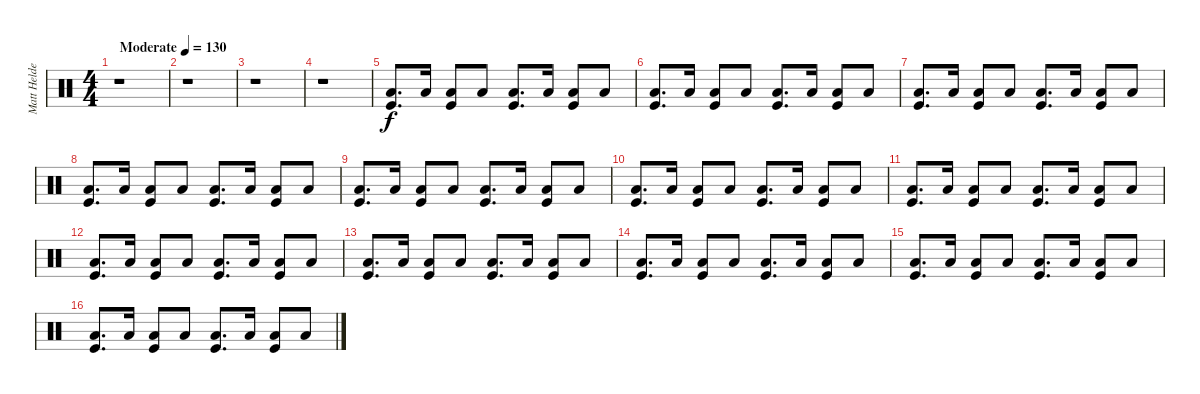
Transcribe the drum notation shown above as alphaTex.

\track ("Matt Helders (Drums)" "Matt Helde") {instrument percussion}
\staff {score}
\articulation defaults
\ts (4 4)
\tempo (130 "Moderate")
\clef neutral
\ks c
r.1{dy f} |
r.1 |
r.1 |
r.1 |
("Low Floor Tom (hit)" "Kick (hit)").8{d} "Low Floor Tom (hit)".16 ("Low Floor Tom (hit)" "Kick (hit)").8 "Low Floor Tom (hit)".8 ("Low Floor Tom (hit)" "Kick (hit)").8{d} "Low Floor Tom (hit)".16 ("Low Floor Tom (hit)" "Kick (hit)").8 "Low Floor Tom (hit)".8 |
("Low Floor Tom (hit)" "Kick (hit)").8{d} "Low Floor Tom (hit)".16 ("Low Floor Tom (hit)" "Kick (hit)").8 "Low Floor Tom (hit)".8 ("Low Floor Tom (hit)" "Kick (hit)").8{d} "Low Floor Tom (hit)".16 ("Low Floor Tom (hit)" "Kick (hit)").8 "Low Floor Tom (hit)".8 |
("Low Floor Tom (hit)" "Kick (hit)").8{d} "Low Floor Tom (hit)".16 ("Low Floor Tom (hit)" "Kick (hit)").8 "Low Floor Tom (hit)".8 ("Low Floor Tom (hit)" "Kick (hit)").8{d} "Low Floor Tom (hit)".16 ("Low Floor Tom (hit)" "Kick (hit)").8 "Low Floor Tom (hit)".8 |
("Low Floor Tom (hit)" "Kick (hit)").8{d} "Low Floor Tom (hit)".16 ("Low Floor Tom (hit)" "Kick (hit)").8 "Low Floor Tom (hit)".8 ("Low Floor Tom (hit)" "Kick (hit)").8{d} "Low Floor Tom (hit)".16 ("Low Floor Tom (hit)" "Kick (hit)").8 "Low Floor Tom (hit)".8 |
("Low Floor Tom (hit)" "Kick (hit)").8{d} "Low Floor Tom (hit)".16 ("Low Floor Tom (hit)" "Kick (hit)").8 "Low Floor Tom (hit)".8 ("Low Floor Tom (hit)" "Kick (hit)").8{d} "Low Floor Tom (hit)".16 ("Low Floor Tom (hit)" "Kick (hit)").8 "Low Floor Tom (hit)".8 |
("Low Floor Tom (hit)" "Kick (hit)").8{d} "Low Floor Tom (hit)".16 ("Low Floor Tom (hit)" "Kick (hit)").8 "Low Floor Tom (hit)".8 ("Low Floor Tom (hit)" "Kick (hit)").8{d} "Low Floor Tom (hit)".16 ("Low Floor Tom (hit)" "Kick (hit)").8 "Low Floor Tom (hit)".8 |
("Low Floor Tom (hit)" "Kick (hit)").8{d} "Low Floor Tom (hit)".16 ("Low Floor Tom (hit)" "Kick (hit)").8 "Low Floor Tom (hit)".8 ("Low Floor Tom (hit)" "Kick (hit)").8{d} "Low Floor Tom (hit)".16 ("Low Floor Tom (hit)" "Kick (hit)").8 "Low Floor Tom (hit)".8 |
("Low Floor Tom (hit)" "Kick (hit)").8{d} "Low Floor Tom (hit)".16 ("Low Floor Tom (hit)" "Kick (hit)").8 "Low Floor Tom (hit)".8 ("Low Floor Tom (hit)" "Kick (hit)").8{d} "Low Floor Tom (hit)".16 ("Low Floor Tom (hit)" "Kick (hit)").8 "Low Floor Tom (hit)".8 |
("Low Floor Tom (hit)" "Kick (hit)").8{d} "Low Floor Tom (hit)".16 ("Low Floor Tom (hit)" "Kick (hit)").8 "Low Floor Tom (hit)".8 ("Low Floor Tom (hit)" "Kick (hit)").8{d} "Low Floor Tom (hit)".16 ("Low Floor Tom (hit)" "Kick (hit)").8 "Low Floor Tom (hit)".8 |
("Low Floor Tom (hit)" "Kick (hit)").8{d} "Low Floor Tom (hit)".16 ("Low Floor Tom (hit)" "Kick (hit)").8 "Low Floor Tom (hit)".8 ("Low Floor Tom (hit)" "Kick (hit)").8{d} "Low Floor Tom (hit)".16 ("Low Floor Tom (hit)" "Kick (hit)").8 "Low Floor Tom (hit)".8 |
("Low Floor Tom (hit)" "Kick (hit)").8{d} "Low Floor Tom (hit)".16 ("Low Floor Tom (hit)" "Kick (hit)").8 "Low Floor Tom (hit)".8 ("Low Floor Tom (hit)" "Kick (hit)").8{d} "Low Floor Tom (hit)".16 ("Low Floor Tom (hit)" "Kick (hit)").8 "Low Floor Tom (hit)".8 |
("Low Floor Tom (hit)" "Kick (hit)").8{d} "Low Floor Tom (hit)".16 ("Low Floor Tom (hit)" "Kick (hit)").8 "Low Floor Tom (hit)".8 ("Low Floor Tom (hit)" "Kick (hit)").8{d} "Low Floor Tom (hit)".16 ("Low Floor Tom (hit)" "Kick (hit)").8 "Low Floor Tom (hit)".8
